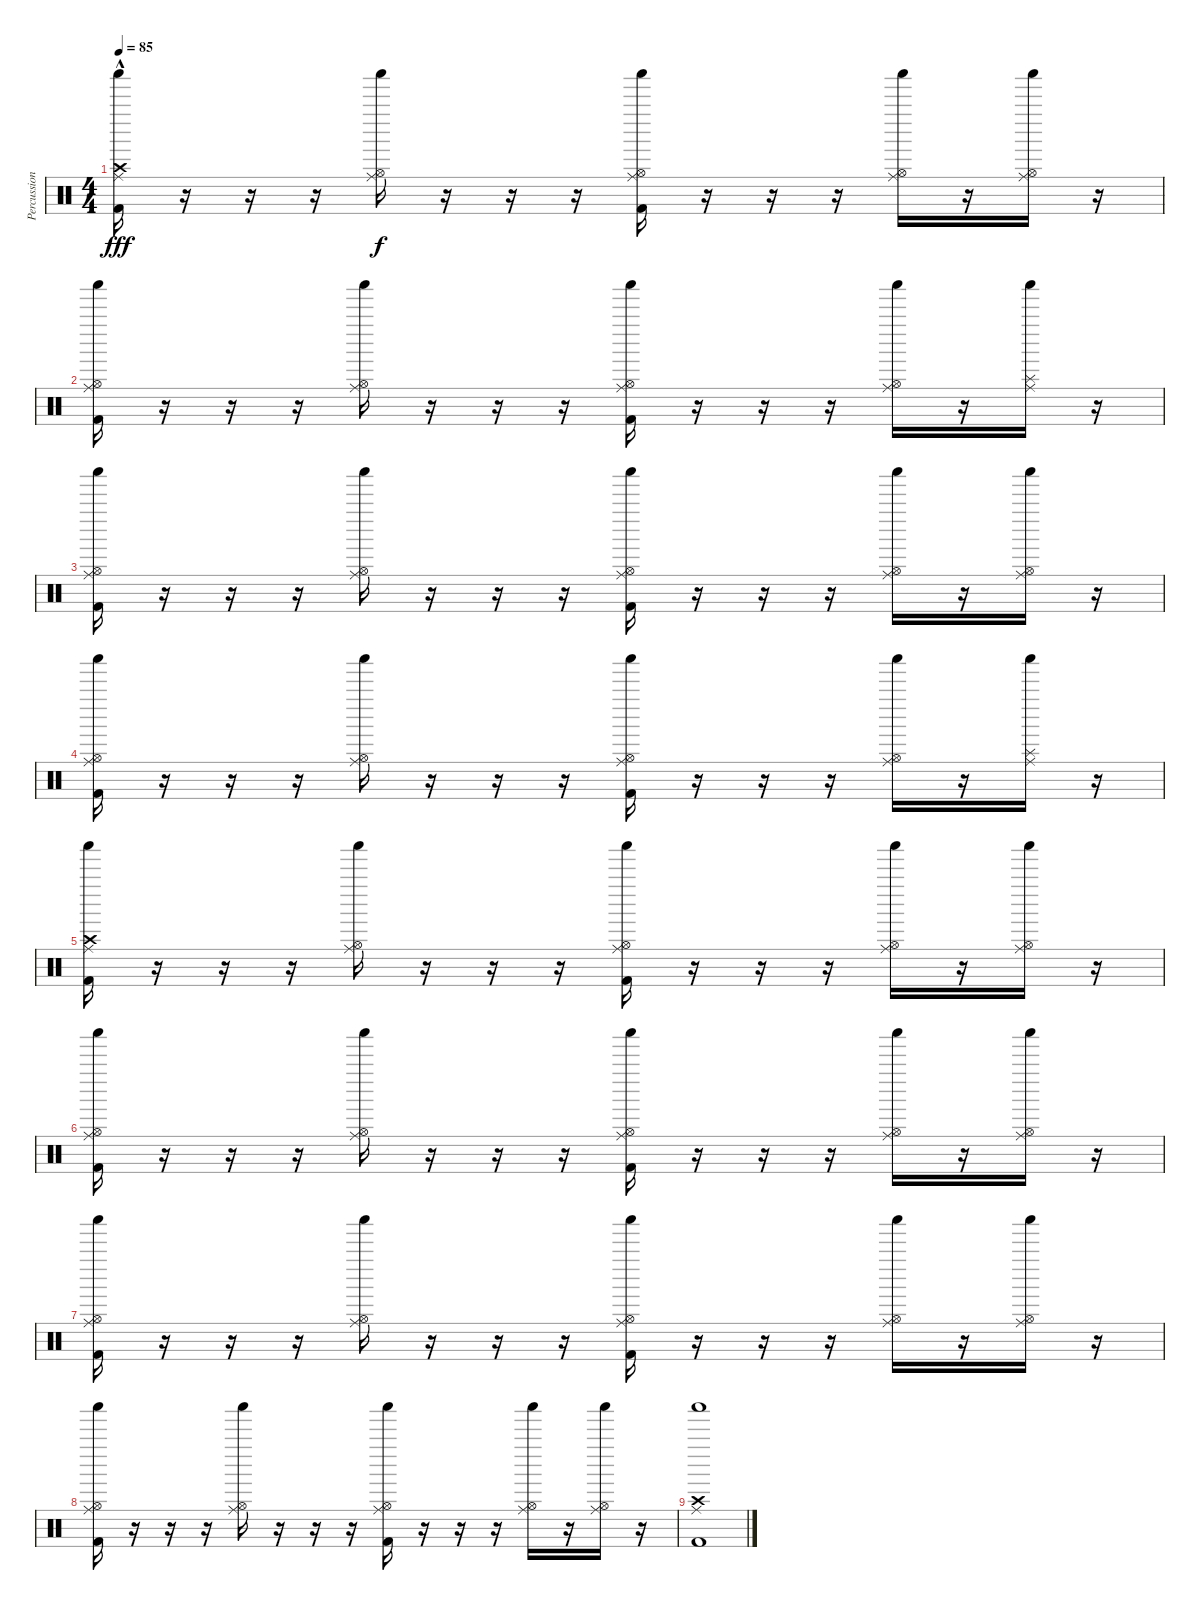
\track ("Percussion" "Percussion") {instrument percussion}
\staff {score}
\articulation defaults
\ts (4 4)
\tempo 85
\clef neutral
\ks c
("Crash high (hit)"{hac} "Shaker (hit)" "Ride (middle)" "Kick (hit) 2").16{dy fff} r.16 r.16 r.16 ("Hi-Hat (open)" "Shaker (hit)" "Ride (middle)").16{dy f} r.16 r.16 r.16 ("Hi-Hat (open)" "Shaker (hit)" "Ride (middle)" "Kick (hit) 2").16 r.16 r.16 r.16 ("Hi-Hat (open)" "Shaker (hit)" "Ride (middle)").16 r.16 ("Hi-Hat (open)" "Shaker (hit)" "Ride (middle)").16 r.16 |
("Hi-Hat (open)" "Shaker (hit)" "Ride (middle)" "Kick (hit) 2").16 r.16 r.16 r.16 ("Hi-Hat (open)" "Shaker (hit)" "Ride (middle)").16 r.16 r.16 r.16 ("Hi-Hat (open)" "Shaker (hit)" "Ride (middle)" "Kick (hit) 2").16 r.16 r.16 r.16 ("Hi-Hat (open)" "Shaker (hit)" "Ride (middle)").16 r.16 ("Splash (hit)" "Shaker (hit)" "Ride (middle)").16 r.16 |
("Hi-Hat (open)" "Shaker (hit)" "Ride (middle)" "Kick (hit) 2").16 r.16 r.16 r.16 ("Hi-Hat (open)" "Shaker (hit)" "Ride (middle)").16 r.16 r.16 r.16 ("Hi-Hat (open)" "Shaker (hit)" "Ride (middle)" "Kick (hit) 2").16 r.16 r.16 r.16 ("Hi-Hat (open)" "Shaker (hit)" "Ride (middle)").16 r.16 ("Hi-Hat (open)" "Shaker (hit)" "Ride (middle)").16 r.16 |
("Hi-Hat (open)" "Shaker (hit)" "Ride (middle)" "Kick (hit) 2").16 r.16 r.16 r.16 ("Hi-Hat (open)" "Shaker (hit)" "Ride (middle)").16 r.16 r.16 r.16 ("Hi-Hat (open)" "Shaker (hit)" "Ride (middle)" "Kick (hit) 2").16 r.16 r.16 r.16 ("Hi-Hat (open)" "Shaker (hit)" "Ride (middle)").16 r.16 ("Splash (hit)" "Shaker (hit)" "Ride (middle)").16 r.16 |
("Crash high (hit)" "Shaker (hit)" "Ride (middle)" "Kick (hit) 2").16 r.16 r.16 r.16 ("Hi-Hat (open)" "Shaker (hit)" "Ride (middle)").16 r.16 r.16 r.16 ("Hi-Hat (open)" "Shaker (hit)" "Ride (middle)" "Kick (hit) 2").16 r.16 r.16 r.16 ("Hi-Hat (open)" "Shaker (hit)" "Ride (middle)").16 r.16 ("Hi-Hat (open)" "Shaker (hit)" "Ride (middle)").16 r.16 |
("Hi-Hat (open)" "Shaker (hit)" "Ride (middle)" "Kick (hit) 2").16 r.16 r.16 r.16 ("Hi-Hat (open)" "Shaker (hit)" "Ride (middle)").16 r.16 r.16 r.16 ("Hi-Hat (open)" "Shaker (hit)" "Ride (middle)" "Kick (hit) 2").16 r.16 r.16 r.16 ("Hi-Hat (open)" "Shaker (hit)" "Ride (middle)").16 r.16 ("Hi-Hat (open)" "Shaker (hit)" "Ride (middle)").16 r.16 |
("Hi-Hat (open)" "Shaker (hit)" "Ride (middle)" "Kick (hit) 2").16 r.16 r.16 r.16 ("Hi-Hat (open)" "Shaker (hit)" "Ride (middle)").16 r.16 r.16 r.16 ("Hi-Hat (open)" "Shaker (hit)" "Ride (middle)" "Kick (hit) 2").16 r.16 r.16 r.16 ("Hi-Hat (open)" "Shaker (hit)" "Ride (middle)").16 r.16 ("Hi-Hat (open)" "Shaker (hit)" "Ride (middle)").16 r.16 |
("Hi-Hat (open)" "Shaker (hit)" "Ride (middle)" "Kick (hit) 2").16 r.16 r.16 r.16 ("Hi-Hat (open)" "Shaker (hit)" "Ride (middle)").16 r.16 r.16 r.16 ("Hi-Hat (open)" "Shaker (hit)" "Ride (middle)" "Kick (hit) 2").16 r.16 r.16 r.16 ("Hi-Hat (open)" "Shaker (hit)" "Ride (middle)").16 r.16 ("Hi-Hat (open)" "Shaker (hit)" "Ride (middle)").16 r.16 |
("Crash high (hit)" "Shaker (hit)" "Ride (middle)" "Kick (hit) 2").1
